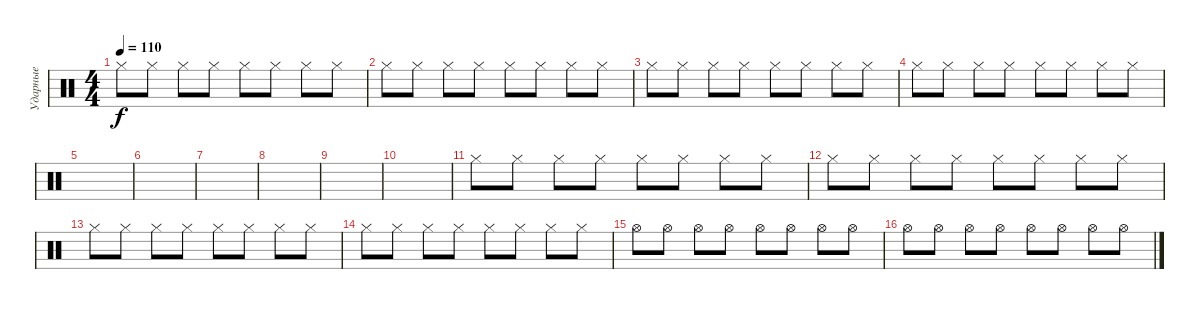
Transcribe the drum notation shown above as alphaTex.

\track ("Ударные" "Ударные") {instrument percussion}
\staff {score}
\articulation defaults
\ts (4 4)
\tempo 110
\clef neutral
\ks c "Hi-Hat (closed)".8{dy f} "Hi-Hat (closed)".8 "Hi-Hat (closed)".8 "Hi-Hat (closed)".8 "Hi-Hat (closed)".8 "Hi-Hat (closed)".8 "Hi-Hat (closed)".8 "Hi-Hat (closed)".8
|
"Hi-Hat (closed)".8 "Hi-Hat (closed)".8 "Hi-Hat (closed)".8 "Hi-Hat (closed)".8 "Hi-Hat (closed)".8 "Hi-Hat (closed)".8 "Hi-Hat (closed)".8 "Hi-Hat (closed)".8 |
"Hi-Hat (closed)".8 "Hi-Hat (closed)".8 "Hi-Hat (closed)".8 "Hi-Hat (closed)".8 "Hi-Hat (closed)".8 "Hi-Hat (closed)".8 "Hi-Hat (closed)".8 "Hi-Hat (closed)".8 |
"Hi-Hat (closed)".8 "Hi-Hat (closed)".8 "Hi-Hat (closed)".8 "Hi-Hat (closed)".8 "Hi-Hat (closed)".8 "Hi-Hat (closed)".8 "Hi-Hat (closed)".8 "Hi-Hat (closed)".8 |
|
|
|
|
|
|
"Hi-Hat (closed)".8 "Hi-Hat (closed)".8 "Hi-Hat (closed)".8 "Hi-Hat (closed)".8 "Hi-Hat (closed)".8 "Hi-Hat (closed)".8 "Hi-Hat (closed)".8 "Hi-Hat (closed)".8 |
"Hi-Hat (closed)".8 "Hi-Hat (closed)".8 "Hi-Hat (closed)".8 "Hi-Hat (closed)".8 "Hi-Hat (closed)".8 "Hi-Hat (closed)".8 "Hi-Hat (closed)".8 "Hi-Hat (closed)".8 |
"Hi-Hat (closed)".8 "Hi-Hat (closed)".8 "Hi-Hat (closed)".8 "Hi-Hat (closed)".8 "Hi-Hat (closed)".8 "Hi-Hat (closed)".8 "Hi-Hat (closed)".8 "Hi-Hat (closed)".8 |
"Hi-Hat (closed)".8 "Hi-Hat (closed)".8 "Hi-Hat (closed)".8 "Hi-Hat (closed)".8 "Hi-Hat (closed)".8 "Hi-Hat (closed)".8 "Hi-Hat (closed)".8 "Hi-Hat (closed)".8 |
"Hi-Hat (open)".8 "Hi-Hat (open)".8 "Hi-Hat (open)".8 "Hi-Hat (open)".8 "Hi-Hat (open)".8 "Hi-Hat (open)".8 "Hi-Hat (open)".8 "Hi-Hat (open)".8 |
"Hi-Hat (open)".8 "Hi-Hat (open)".8 "Hi-Hat (open)".8 "Hi-Hat (open)".8 "Hi-Hat (open)".8 "Hi-Hat (open)".8 "Hi-Hat (open)".8 "Hi-Hat (open)".8
